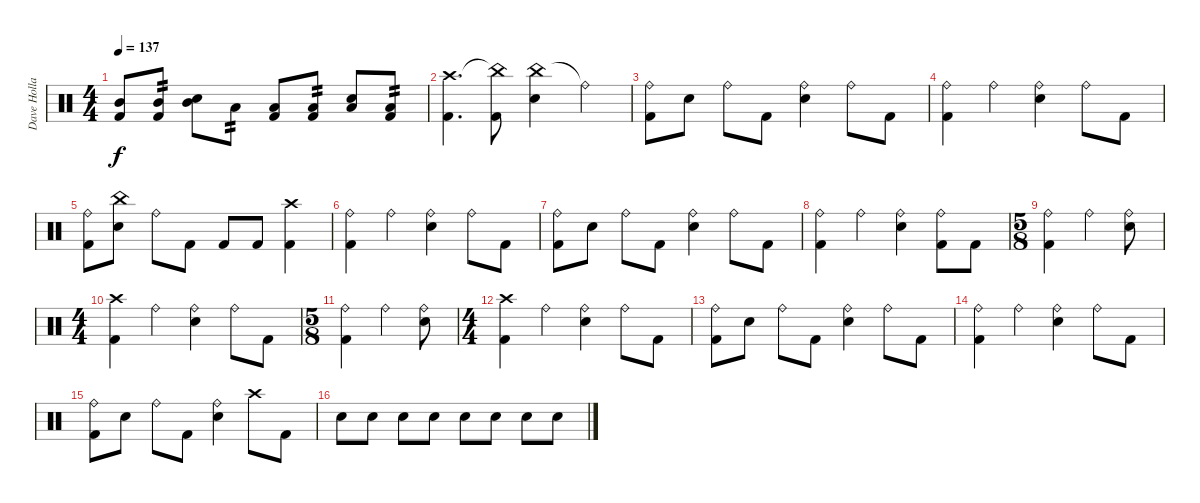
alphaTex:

\track ("Dave Holland" "Dave Holla") {instrument percussion}
\staff {score}
\articulation defaults
\ts (4 4)
\tempo 137
\clef neutral
\ks c
("Mid Tom (hit)" "Kick (hit) 2").8{dy f} ("Mid Tom (hit)" "Kick (hit) 2").8{tp 2} ("Mid Tom (hit)" "Snare (hit) 2").8 "Low Tom (hit)".8{tp 2} ("Low Tom (hit)" "Kick (hit) 2").8 ("Low Tom (hit)" "Kick (hit) 2").8{tp 2} ("Low Tom (hit)" "Snare (hit) 2").8 ("Low Tom (hit)" "Kick (hit) 2").8{tp 2} |
("Crash high (hit)" "Kick (hit) 2").4{d} ("China (hit)"{t} "Kick (hit) 2").8 ("China (hit)" "Snare (hit) 2").4 "Ride (bell)"{t}.4 |
("Ride (bell)" "Kick (hit) 2").8 "Snare (hit) 2".8 "Ride (bell)".8 "Kick (hit) 2".8 ("Ride (bell)" "Snare (hit) 2").4 "Ride (bell)".8 "Kick (hit) 2".8 |
("Ride (bell)" "Kick (hit) 2").4 "Ride (bell)".4 ("Ride (bell)" "Snare (hit) 2").4 "Ride (bell)".8 "Kick (hit) 2".8 |
("Ride (bell)" "Kick (hit) 2").8 ("China (hit)" "Snare (hit) 2").8 "Ride (bell)".8 "Kick (hit) 2".8 "Kick (hit) 2".8 "Kick (hit) 2".8 ("Crash high (hit)" "Kick (hit) 2").4 |
("Ride (bell)" "Kick (hit) 2").4 "Ride (bell)".4 ("Ride (bell)" "Snare (hit) 2").4 "Ride (bell)".8 "Kick (hit) 2".8 |
("Ride (bell)" "Kick (hit) 2").8 "Snare (hit) 2".8 "Ride (bell)".8 "Kick (hit) 2".8 ("Ride (bell)" "Snare (hit) 2").4 "Ride (bell)".8 "Kick (hit) 2".8 |
("Ride (bell)" "Kick (hit) 2").4 "Ride (bell)".4 ("Ride (bell)" "Snare (hit) 2").4 ("Ride (bell)" "Kick (hit) 2").8 "Kick (hit) 2".8 |
\ts (5 8)
("Ride (bell)" "Kick (hit) 2").4 "Ride (bell)".4 ("Ride (bell)" "Snare (hit) 2").8 |
\ts (4 4)
("Crash high (hit)" "Kick (hit) 2").4 "Ride (bell)".4 ("Ride (bell)" "Snare (hit) 2").4 "Ride (bell)".8 "Kick (hit) 2".8 |
\ts (5 8)
("Ride (bell)" "Kick (hit) 2").4 "Ride (bell)".4 ("Ride (bell)" "Snare (hit) 2").8 |
\ts (4 4)
("Crash high (hit)" "Kick (hit) 2").4 "Ride (bell)".4 ("Ride (bell)" "Snare (hit) 2").4 "Ride (bell)".8 "Kick (hit) 2".8 |
("Ride (bell)" "Kick (hit) 2").8 "Snare (hit) 2".8 "Ride (bell)".8 "Kick (hit) 2".8 ("Ride (bell)" "Snare (hit) 2").4 "Ride (bell)".8 "Kick (hit) 2".8 |
("Ride (bell)" "Kick (hit) 2").4 "Ride (bell)".4 ("Ride (bell)" "Snare (hit) 2").4 "Ride (bell)".8 "Kick (hit) 2".8 |
("Ride (bell)" "Kick (hit) 2").8 "Snare (hit) 2".8 "Ride (bell)".8 "Kick (hit) 2".8 ("Ride (bell)" "Snare (hit) 2").4 "Crash high (hit)".8 "Kick (hit) 2".8 |
"Snare (hit) 2".8 "Snare (hit) 2".8 "Snare (hit) 2".8 "Snare (hit) 2".8 "Snare (hit) 2".8 "Snare (hit) 2".8 "Snare (hit) 2".8 "Snare (hit) 2".8
